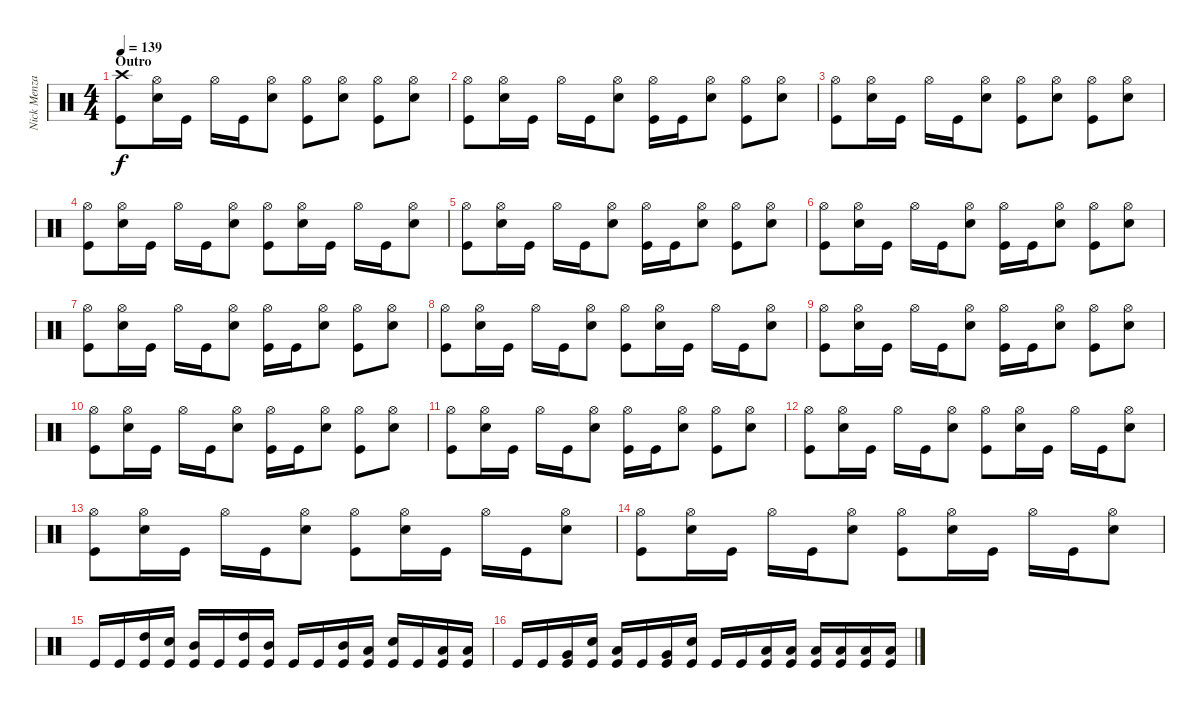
\track ("Nick Menza" "Nick Menza") {instrument percussion}
\staff {score}
\articulation defaults
\ts (4 4)
\section ("" "Outro")
\tempo 139
\clef neutral
\ks c
("Crash high (hit)" "Kick (hit)").8{dy f} ("Hi-Hat (open)" "Snare (hit) 2").16 "Kick (hit)".16 "Hi-Hat (open)".16 "Kick (hit)".16 ("Hi-Hat (open)" "Snare (hit) 2").8 ("Hi-Hat (open)" "Kick (hit)").8 ("Hi-Hat (open)" "Snare (hit) 2").8 ("Hi-Hat (open)" "Kick (hit)").8 ("Hi-Hat (open)" "Snare (hit) 2").8 |
("Hi-Hat (open)" "Kick (hit)").8 ("Hi-Hat (open)" "Snare (hit) 2").16 "Kick (hit)".16 "Hi-Hat (open)".16 "Kick (hit)".16 ("Hi-Hat (open)" "Snare (hit) 2").8 ("Hi-Hat (open)" "Kick (hit)").16 "Kick (hit)".16 ("Hi-Hat (open)" "Snare (hit) 2").8 ("Hi-Hat (open)" "Kick (hit)").8 ("Hi-Hat (open)" "Snare (hit) 2").8 |
("Hi-Hat (open)" "Kick (hit)").8 ("Hi-Hat (open)" "Snare (hit) 2").16 "Kick (hit)".16 "Hi-Hat (open)".16 "Kick (hit)".16 ("Hi-Hat (open)" "Snare (hit) 2").8 ("Hi-Hat (open)" "Kick (hit)").8 ("Hi-Hat (open)" "Snare (hit) 2").8 ("Hi-Hat (open)" "Kick (hit)").8 ("Hi-Hat (open)" "Snare (hit) 2").8 |
("Hi-Hat (open)" "Kick (hit)").8 ("Hi-Hat (open)" "Snare (hit) 2").16 "Kick (hit)".16 "Hi-Hat (open)".16 "Kick (hit)".16 ("Hi-Hat (open)" "Snare (hit) 2").8 ("Hi-Hat (open)" "Kick (hit)").8 ("Hi-Hat (open)" "Snare (hit) 2").16 "Kick (hit)".16 "Hi-Hat (open)".16 "Kick (hit)".16 ("Hi-Hat (open)" "Snare (hit) 2").8 |
("Hi-Hat (open)" "Kick (hit)").8 ("Hi-Hat (open)" "Snare (hit) 2").16 "Kick (hit)".16 "Hi-Hat (open)".16 "Kick (hit)".16 ("Hi-Hat (open)" "Snare (hit) 2").8 ("Hi-Hat (open)" "Kick (hit)").16 "Kick (hit)".16 ("Hi-Hat (open)" "Snare (hit) 2").8 ("Hi-Hat (open)" "Kick (hit)").8 ("Hi-Hat (open)" "Snare (hit) 2").8 |
("Hi-Hat (open)" "Kick (hit)").8 ("Hi-Hat (open)" "Snare (hit) 2").16 "Kick (hit)".16 "Hi-Hat (open)".16 "Kick (hit)".16 ("Hi-Hat (open)" "Snare (hit) 2").8 ("Hi-Hat (open)" "Kick (hit)").16 "Kick (hit)".16 ("Hi-Hat (open)" "Snare (hit) 2").8 ("Hi-Hat (open)" "Kick (hit)").8 ("Hi-Hat (open)" "Snare (hit) 2").8 |
("Hi-Hat (open)" "Kick (hit)").8 ("Hi-Hat (open)" "Snare (hit) 2").16 "Kick (hit)".16 "Hi-Hat (open)".16 "Kick (hit)".16 ("Hi-Hat (open)" "Snare (hit) 2").8 ("Hi-Hat (open)" "Kick (hit)").16 "Kick (hit)".16 ("Hi-Hat (open)" "Snare (hit) 2").8 ("Hi-Hat (open)" "Kick (hit)").8 ("Hi-Hat (open)" "Snare (hit) 2").8 |
("Hi-Hat (open)" "Kick (hit)").8 ("Hi-Hat (open)" "Snare (hit) 2").16 "Kick (hit)".16 "Hi-Hat (open)".16 "Kick (hit)".16 ("Hi-Hat (open)" "Snare (hit) 2").8 ("Hi-Hat (open)" "Kick (hit)").8 ("Hi-Hat (open)" "Snare (hit) 2").16 "Kick (hit)".16 "Hi-Hat (open)".16 "Kick (hit)".16 ("Hi-Hat (open)" "Snare (hit) 2").8 |
("Hi-Hat (open)" "Kick (hit)").8 ("Hi-Hat (open)" "Snare (hit) 2").16 "Kick (hit)".16 "Hi-Hat (open)".16 "Kick (hit)".16 ("Hi-Hat (open)" "Snare (hit) 2").8 ("Hi-Hat (open)" "Kick (hit)").16 "Kick (hit)".16 ("Hi-Hat (open)" "Snare (hit) 2").8 ("Hi-Hat (open)" "Kick (hit)").8 ("Hi-Hat (open)" "Snare (hit) 2").8 |
("Hi-Hat (open)" "Kick (hit)").8 ("Hi-Hat (open)" "Snare (hit) 2").16 "Kick (hit)".16 "Hi-Hat (open)".16 "Kick (hit)".16 ("Hi-Hat (open)" "Snare (hit) 2").8 ("Hi-Hat (open)" "Kick (hit)").16 "Kick (hit)".16 ("Hi-Hat (open)" "Snare (hit) 2").8 ("Hi-Hat (open)" "Kick (hit)").8 ("Hi-Hat (open)" "Snare (hit) 2").8 |
("Hi-Hat (open)" "Kick (hit)").8 ("Hi-Hat (open)" "Snare (hit) 2").16 "Kick (hit)".16 "Hi-Hat (open)".16 "Kick (hit)".16 ("Hi-Hat (open)" "Snare (hit) 2").8 ("Hi-Hat (open)" "Kick (hit)").16 "Kick (hit)".16 ("Hi-Hat (open)" "Snare (hit) 2").8 ("Hi-Hat (open)" "Kick (hit)").8 ("Hi-Hat (open)" "Snare (hit) 2").8 |
("Hi-Hat (open)" "Kick (hit)").8 ("Hi-Hat (open)" "Snare (hit) 2").16 "Kick (hit)".16 "Hi-Hat (open)".16 "Kick (hit)".16 ("Hi-Hat (open)" "Snare (hit) 2").8 ("Hi-Hat (open)" "Kick (hit)").8 ("Hi-Hat (open)" "Snare (hit) 2").16 "Kick (hit)".16 "Hi-Hat (open)".16 "Kick (hit)".16 ("Hi-Hat (open)" "Snare (hit) 2").8 |
("Hi-Hat (open)" "Kick (hit)").8 ("Hi-Hat (open)" "Snare (hit) 2").16 "Kick (hit)".16 "Hi-Hat (open)".16 "Kick (hit)".16 ("Hi-Hat (open)" "Snare (hit) 2").8 ("Hi-Hat (open)" "Kick (hit)").8 ("Hi-Hat (open)" "Snare (hit) 2").16 "Kick (hit)".16 "Hi-Hat (open)".16 "Kick (hit)".16 ("Hi-Hat (open)" "Snare (hit) 2").8 |
("Hi-Hat (open)" "Kick (hit)").8 ("Hi-Hat (open)" "Snare (hit) 2").16 "Kick (hit)".16 "Hi-Hat (open)".16 "Kick (hit)".16 ("Hi-Hat (open)" "Snare (hit) 2").8 ("Hi-Hat (open)" "Kick (hit)").8 ("Hi-Hat (open)" "Snare (hit) 2").16 "Kick (hit)".16 "Hi-Hat (open)".16 "Kick (hit)".16 ("Hi-Hat (open)" "Snare (hit) 2").8 |
"Kick (hit)".16 "Kick (hit)".16 ("High Tom (hit)" "Kick (hit)").16 ("Snare (hit) 2" "Kick (hit)").16 ("Mid Tom (hit)" "Kick (hit)").16 "Kick (hit)".16 ("High Tom (hit)" "Kick (hit)").16 ("Mid Tom (hit)" "Kick (hit)").16 "Kick (hit)".16 "Kick (hit)".16 ("Mid Tom (hit)" "Kick (hit)").16 ("Low Tom (hit)" "Kick (hit)").16 ("Snare (hit) 2" "Kick (hit)").16 "Kick (hit)".16 ("Low Tom (hit)" "Kick (hit)").16 ("Low Tom (hit)" "Kick (hit)").16 |
"Kick (hit)".16 "Kick (hit)".16 ("Very Low Tom (hit)" "Kick (hit)").16 ("Snare (hit) 2" "Kick (hit)").16 ("Low Tom (hit)" "Kick (hit)").16 "Kick (hit)".16 ("Very Low Tom (hit)" "Kick (hit)").16 ("Snare (hit) 2" "Kick (hit)").16 "Kick (hit)".16 "Kick (hit)".16 ("Low Floor Tom (hit)" "Kick (hit)").16 ("Low Floor Tom (hit)" "Kick (hit)").16 ("Low Floor Tom (hit)" "Kick (hit)").16 ("Low Floor Tom (hit)" "Kick (hit)").16 ("Low Floor Tom (hit)" "Kick (hit)").16 ("Low Floor Tom (hit)" "Kick (hit)").16
